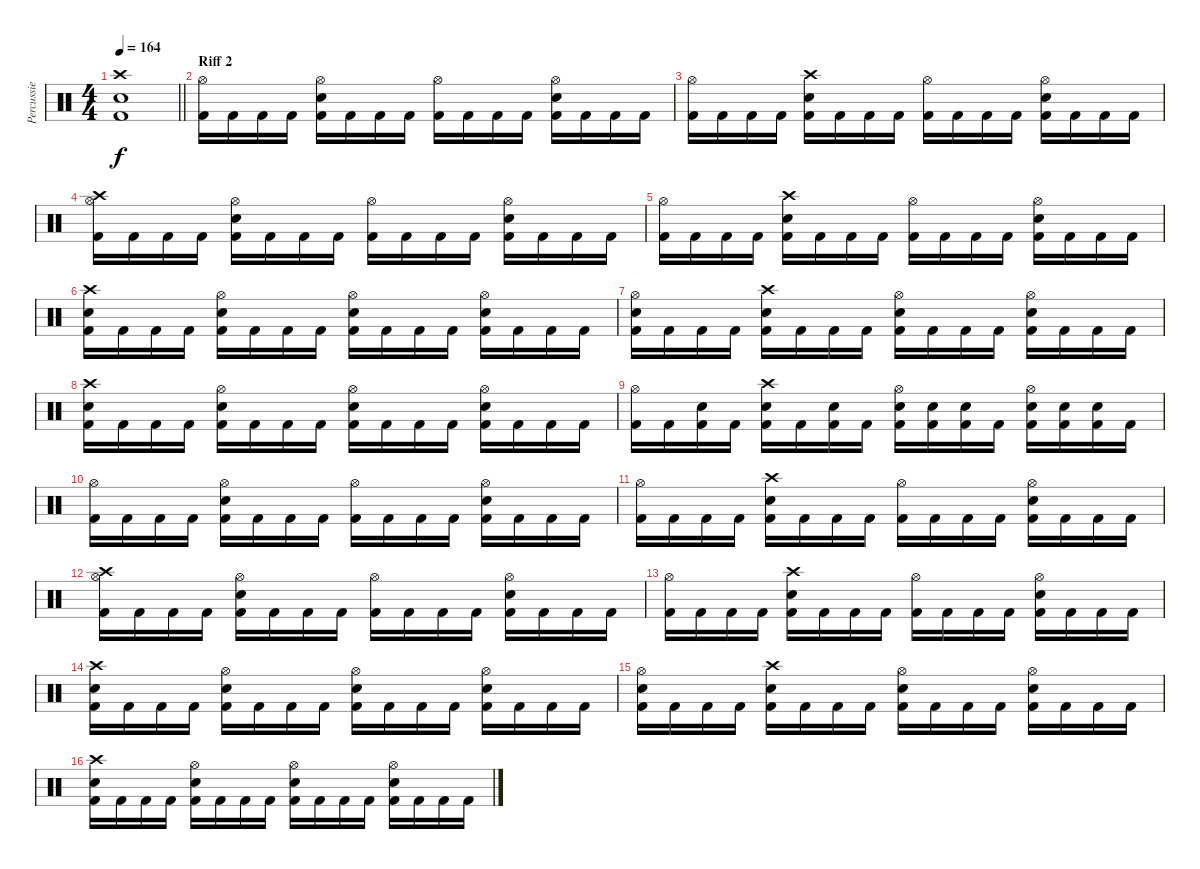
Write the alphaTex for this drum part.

\track ("Percussie" "Percussie") {instrument percussion}
\staff {score}
\articulation defaults
\ts (4 4)
\tempo 164
\clef neutral
\barLineRight lightlight
\ks c
("Crash high (hit)" "Electric Snare (hit)" "Kick (hit) 2").1{dy f} |
\section ("" "Riff 2")
("Hi-Hat (open)" "Kick (hit) 2").16 "Kick (hit) 2".16 "Kick (hit) 2".16 "Kick (hit) 2".16 ("Hi-Hat (open)" "Electric Snare (hit)" "Kick (hit) 2").16 "Kick (hit) 2".16 "Kick (hit) 2".16 "Kick (hit) 2".16 ("Hi-Hat (open)" "Kick (hit) 2").16 "Kick (hit) 2".16 "Kick (hit) 2".16 "Kick (hit) 2".16 ("Hi-Hat (open)" "Electric Snare (hit)" "Kick (hit) 2").16 "Kick (hit) 2".16 "Kick (hit) 2".16 "Kick (hit) 2".16 |
("Hi-Hat (open)" "Kick (hit) 2").16 "Kick (hit) 2".16 "Kick (hit) 2".16 "Kick (hit) 2".16 ("Crash high (hit)" "Electric Snare (hit)" "Kick (hit) 2").16 "Kick (hit) 2".16 "Kick (hit) 2".16 "Kick (hit) 2".16 ("Hi-Hat (open)" "Kick (hit) 2").16 "Kick (hit) 2".16 "Kick (hit) 2".16 "Kick (hit) 2".16 ("Hi-Hat (open)" "Electric Snare (hit)" "Kick (hit) 2").16 "Kick (hit) 2".16 "Kick (hit) 2".16 "Kick (hit) 2".16 |
("Hi-Hat (open)" "Crash high (hit)" "Kick (hit) 2").16 "Kick (hit) 2".16 "Kick (hit) 2".16 "Kick (hit) 2".16 ("Hi-Hat (open)" "Electric Snare (hit)" "Kick (hit) 2").16 "Kick (hit) 2".16 "Kick (hit) 2".16 "Kick (hit) 2".16 ("Hi-Hat (open)" "Kick (hit) 2").16 "Kick (hit) 2".16 "Kick (hit) 2".16 "Kick (hit) 2".16 ("Hi-Hat (open)" "Electric Snare (hit)" "Kick (hit) 2").16 "Kick (hit) 2".16 "Kick (hit) 2".16 "Kick (hit) 2".16 |
("Hi-Hat (open)" "Kick (hit) 2").16 "Kick (hit) 2".16 "Kick (hit) 2".16 "Kick (hit) 2".16 ("Crash high (hit)" "Electric Snare (hit)" "Kick (hit) 2").16 "Kick (hit) 2".16 "Kick (hit) 2".16 "Kick (hit) 2".16 ("Hi-Hat (open)" "Kick (hit) 2").16 "Kick (hit) 2".16 "Kick (hit) 2".16 "Kick (hit) 2".16 ("Hi-Hat (open)" "Electric Snare (hit)" "Kick (hit) 2").16 "Kick (hit) 2".16 "Kick (hit) 2".16 "Kick (hit) 2".16 |
("Crash high (hit)" "Electric Snare (hit)" "Kick (hit) 2").16 "Kick (hit) 2".16 "Kick (hit) 2".16 "Kick (hit) 2".16 ("Hi-Hat (open)" "Electric Snare (hit)" "Kick (hit) 2").16 "Kick (hit) 2".16 "Kick (hit) 2".16 "Kick (hit) 2".16 ("Hi-Hat (open)" "Electric Snare (hit)" "Kick (hit) 2").16 "Kick (hit) 2".16 "Kick (hit) 2".16 "Kick (hit) 2".16 ("Hi-Hat (open)" "Electric Snare (hit)" "Kick (hit) 2").16 "Kick (hit) 2".16 "Kick (hit) 2".16 "Kick (hit) 2".16 |
("Hi-Hat (open)" "Electric Snare (hit)" "Kick (hit) 2").16 "Kick (hit) 2".16 "Kick (hit) 2".16 "Kick (hit) 2".16 ("Crash high (hit)" "Electric Snare (hit)" "Kick (hit) 2").16 "Kick (hit) 2".16 "Kick (hit) 2".16 "Kick (hit) 2".16 ("Hi-Hat (open)" "Electric Snare (hit)" "Kick (hit) 2").16 "Kick (hit) 2".16 "Kick (hit) 2".16 "Kick (hit) 2".16 ("Hi-Hat (open)" "Electric Snare (hit)" "Kick (hit) 2").16 "Kick (hit) 2".16 "Kick (hit) 2".16 "Kick (hit) 2".16 |
("Crash high (hit)" "Electric Snare (hit)" "Kick (hit) 2").16 "Kick (hit) 2".16 "Kick (hit) 2".16 "Kick (hit) 2".16 ("Hi-Hat (open)" "Electric Snare (hit)" "Kick (hit) 2").16 "Kick (hit) 2".16 "Kick (hit) 2".16 "Kick (hit) 2".16 ("Hi-Hat (open)" "Electric Snare (hit)" "Kick (hit) 2").16 "Kick (hit) 2".16 "Kick (hit) 2".16 "Kick (hit) 2".16 ("Hi-Hat (open)" "Electric Snare (hit)" "Kick (hit) 2").16 "Kick (hit) 2".16 "Kick (hit) 2".16 "Kick (hit) 2".16 |
("Hi-Hat (open)" "Kick (hit) 2").16 "Kick (hit) 2".16 ("Electric Snare (hit)" "Kick (hit) 2").16 "Kick (hit) 2".16 ("Crash high (hit)" "Electric Snare (hit)" "Kick (hit) 2").16 "Kick (hit) 2".16 ("Electric Snare (hit)" "Kick (hit) 2").16 "Kick (hit) 2".16 ("Hi-Hat (open)" "Electric Snare (hit)" "Kick (hit) 2").16 ("Electric Snare (hit)" "Kick (hit) 2").16 ("Electric Snare (hit)" "Kick (hit) 2").16 "Kick (hit) 2".16 ("Hi-Hat (open)" "Electric Snare (hit)" "Kick (hit) 2").16 ("Electric Snare (hit)" "Kick (hit) 2").16 ("Electric Snare (hit)" "Kick (hit) 2").16 "Kick (hit) 2".16 |
("Hi-Hat (open)" "Kick (hit) 2").16 "Kick (hit) 2".16 "Kick (hit) 2".16 "Kick (hit) 2".16 ("Hi-Hat (open)" "Electric Snare (hit)" "Kick (hit) 2").16 "Kick (hit) 2".16 "Kick (hit) 2".16 "Kick (hit) 2".16 ("Hi-Hat (open)" "Kick (hit) 2").16 "Kick (hit) 2".16 "Kick (hit) 2".16 "Kick (hit) 2".16 ("Hi-Hat (open)" "Electric Snare (hit)" "Kick (hit) 2").16 "Kick (hit) 2".16 "Kick (hit) 2".16 "Kick (hit) 2".16 |
("Hi-Hat (open)" "Kick (hit) 2").16 "Kick (hit) 2".16 "Kick (hit) 2".16 "Kick (hit) 2".16 ("Crash high (hit)" "Electric Snare (hit)" "Kick (hit) 2").16 "Kick (hit) 2".16 "Kick (hit) 2".16 "Kick (hit) 2".16 ("Hi-Hat (open)" "Kick (hit) 2").16 "Kick (hit) 2".16 "Kick (hit) 2".16 "Kick (hit) 2".16 ("Hi-Hat (open)" "Electric Snare (hit)" "Kick (hit) 2").16 "Kick (hit) 2".16 "Kick (hit) 2".16 "Kick (hit) 2".16 |
("Hi-Hat (open)" "Crash high (hit)" "Kick (hit) 2").16 "Kick (hit) 2".16 "Kick (hit) 2".16 "Kick (hit) 2".16 ("Hi-Hat (open)" "Electric Snare (hit)" "Kick (hit) 2").16 "Kick (hit) 2".16 "Kick (hit) 2".16 "Kick (hit) 2".16 ("Hi-Hat (open)" "Kick (hit) 2").16 "Kick (hit) 2".16 "Kick (hit) 2".16 "Kick (hit) 2".16 ("Hi-Hat (open)" "Electric Snare (hit)" "Kick (hit) 2").16 "Kick (hit) 2".16 "Kick (hit) 2".16 "Kick (hit) 2".16 |
("Hi-Hat (open)" "Kick (hit) 2").16 "Kick (hit) 2".16 "Kick (hit) 2".16 "Kick (hit) 2".16 ("Crash high (hit)" "Electric Snare (hit)" "Kick (hit) 2").16 "Kick (hit) 2".16 "Kick (hit) 2".16 "Kick (hit) 2".16 ("Hi-Hat (open)" "Kick (hit) 2").16 "Kick (hit) 2".16 "Kick (hit) 2".16 "Kick (hit) 2".16 ("Hi-Hat (open)" "Electric Snare (hit)" "Kick (hit) 2").16 "Kick (hit) 2".16 "Kick (hit) 2".16 "Kick (hit) 2".16 |
("Crash high (hit)" "Electric Snare (hit)" "Kick (hit) 2").16 "Kick (hit) 2".16 "Kick (hit) 2".16 "Kick (hit) 2".16 ("Hi-Hat (open)" "Electric Snare (hit)" "Kick (hit) 2").16 "Kick (hit) 2".16 "Kick (hit) 2".16 "Kick (hit) 2".16 ("Hi-Hat (open)" "Electric Snare (hit)" "Kick (hit) 2").16 "Kick (hit) 2".16 "Kick (hit) 2".16 "Kick (hit) 2".16 ("Hi-Hat (open)" "Electric Snare (hit)" "Kick (hit) 2").16 "Kick (hit) 2".16 "Kick (hit) 2".16 "Kick (hit) 2".16 |
("Hi-Hat (open)" "Electric Snare (hit)" "Kick (hit) 2").16 "Kick (hit) 2".16 "Kick (hit) 2".16 "Kick (hit) 2".16 ("Crash high (hit)" "Electric Snare (hit)" "Kick (hit) 2").16 "Kick (hit) 2".16 "Kick (hit) 2".16 "Kick (hit) 2".16 ("Hi-Hat (open)" "Electric Snare (hit)" "Kick (hit) 2").16 "Kick (hit) 2".16 "Kick (hit) 2".16 "Kick (hit) 2".16 ("Hi-Hat (open)" "Electric Snare (hit)" "Kick (hit) 2").16 "Kick (hit) 2".16 "Kick (hit) 2".16 "Kick (hit) 2".16 |
("Crash high (hit)" "Electric Snare (hit)" "Kick (hit) 2").16 "Kick (hit) 2".16 "Kick (hit) 2".16 "Kick (hit) 2".16 ("Hi-Hat (open)" "Electric Snare (hit)" "Kick (hit) 2").16 "Kick (hit) 2".16 "Kick (hit) 2".16 "Kick (hit) 2".16 ("Hi-Hat (open)" "Electric Snare (hit)" "Kick (hit) 2").16 "Kick (hit) 2".16 "Kick (hit) 2".16 "Kick (hit) 2".16 ("Hi-Hat (open)" "Electric Snare (hit)" "Kick (hit) 2").16 "Kick (hit) 2".16 "Kick (hit) 2".16 "Kick (hit) 2".16
